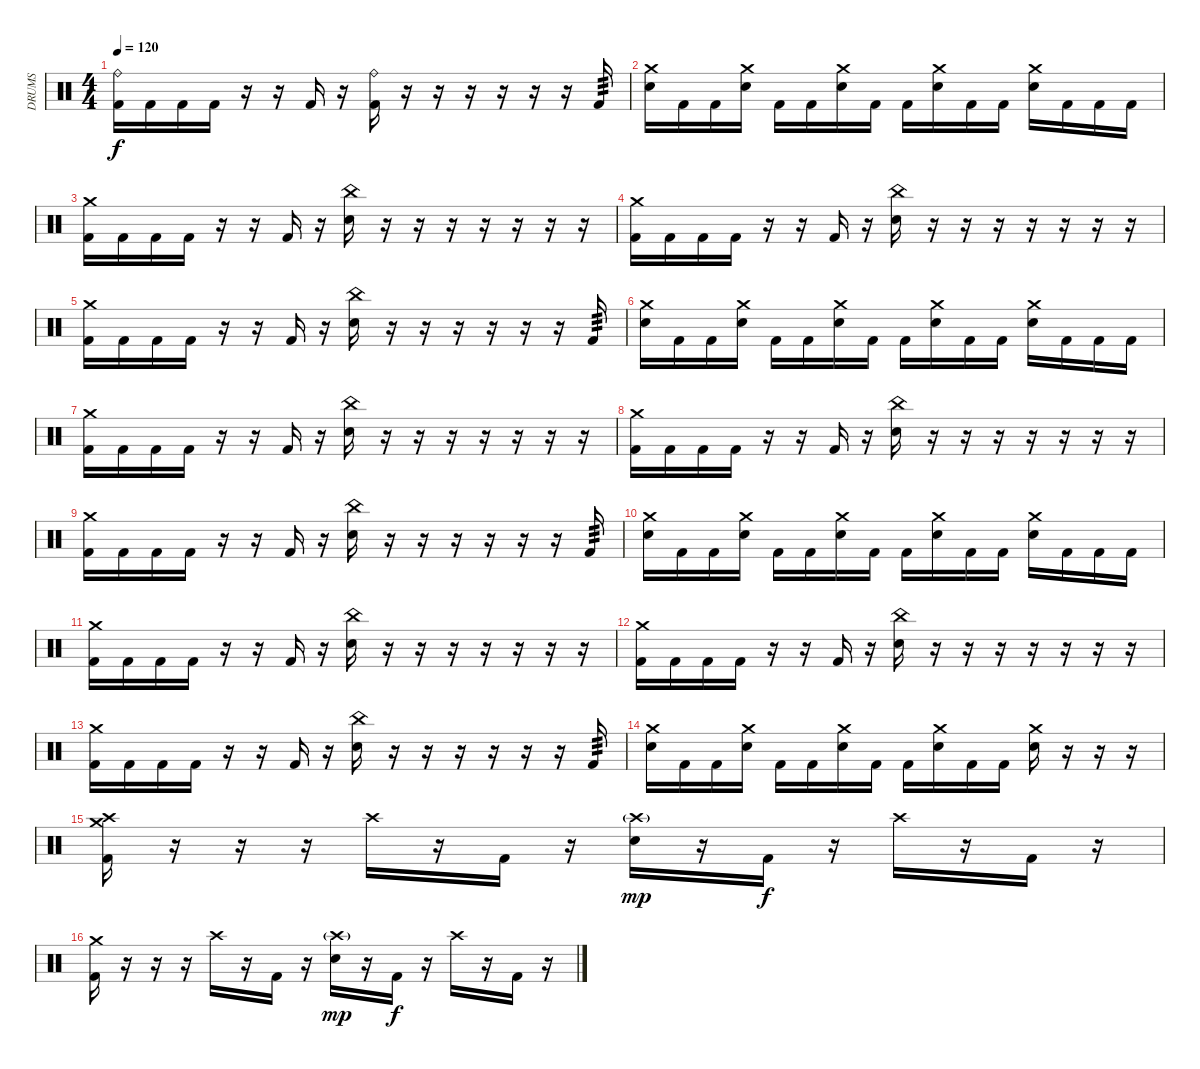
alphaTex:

\track ("DRUMS" "DRUMS") {instrument percussion}
\staff {score}
\articulation defaults
\ts (4 4)
\tempo 120
\clef neutral
\ks c
("Ride (bell)" "Kick (hit) 2").16{dy f} "Kick (hit) 2".16 "Kick (hit) 2".16 "Kick (hit) 2".16 r.16 r.16 "Kick (hit) 2".16 r.16 ("Ride (bell)" "Kick (hit) 2").16 r.16 r.16 r.16 r.16 r.16 r.16 "Kick (hit) 2".16{tp 3} |
("Electric Snare (hit)" "Crash medium (hit)").16 "Kick (hit) 2".16 "Kick (hit) 2".16 ("Electric Snare (hit)" "Crash medium (hit)").16 "Kick (hit) 2".16 "Kick (hit) 2".16 ("Electric Snare (hit)" "Crash medium (hit)").16 "Kick (hit) 2".16 "Kick (hit) 2".16 ("Electric Snare (hit)" "Crash medium (hit)").16 "Kick (hit) 2".16 "Kick (hit) 2".16 ("Electric Snare (hit)" "Crash medium (hit)").16 "Kick (hit) 2".16 "Kick (hit) 2".16 "Kick (hit) 2".16 |
("Crash medium (hit)" "Kick (hit) 2").16 "Kick (hit) 2".16 "Kick (hit) 2".16 "Kick (hit) 2".16 r.16 r.16 "Kick (hit) 2".16 r.16 ("China (hit)" "Electric Snare (hit)").16 r.16 r.16 r.16 r.16 r.16 r.16 r.16 |
("Crash medium (hit)" "Kick (hit) 2").16 "Kick (hit) 2".16 "Kick (hit) 2".16 "Kick (hit) 2".16 r.16 r.16 "Kick (hit) 2".16 r.16 ("China (hit)" "Electric Snare (hit)").16 r.16 r.16 r.16 r.16 r.16 r.16 r.16 |
("Crash medium (hit)" "Kick (hit) 2").16 "Kick (hit) 2".16 "Kick (hit) 2".16 "Kick (hit) 2".16 r.16 r.16 "Kick (hit) 2".16 r.16 ("China (hit)" "Electric Snare (hit)").16 r.16 r.16 r.16 r.16 r.16 r.16 "Kick (hit) 2".16{tp 3} |
("Electric Snare (hit)" "Crash medium (hit)").16 "Kick (hit) 2".16 "Kick (hit) 2".16 ("Electric Snare (hit)" "Crash medium (hit)").16 "Kick (hit) 2".16 "Kick (hit) 2".16 ("Electric Snare (hit)" "Crash medium (hit)").16 "Kick (hit) 2".16 "Kick (hit) 2".16 ("Electric Snare (hit)" "Crash medium (hit)").16 "Kick (hit) 2".16 "Kick (hit) 2".16 ("Electric Snare (hit)" "Crash medium (hit)").16 "Kick (hit) 2".16 "Kick (hit) 2".16 "Kick (hit) 2".16 |
("Crash medium (hit)" "Kick (hit) 2").16 "Kick (hit) 2".16 "Kick (hit) 2".16 "Kick (hit) 2".16 r.16 r.16 "Kick (hit) 2".16 r.16 ("China (hit)" "Electric Snare (hit)").16 r.16 r.16 r.16 r.16 r.16 r.16 r.16 |
("Crash medium (hit)" "Kick (hit) 2").16 "Kick (hit) 2".16 "Kick (hit) 2".16 "Kick (hit) 2".16 r.16 r.16 "Kick (hit) 2".16 r.16 ("China (hit)" "Electric Snare (hit)").16 r.16 r.16 r.16 r.16 r.16 r.16 r.16 |
("Crash medium (hit)" "Kick (hit) 2").16 "Kick (hit) 2".16 "Kick (hit) 2".16 "Kick (hit) 2".16 r.16 r.16 "Kick (hit) 2".16 r.16 ("China (hit)" "Electric Snare (hit)").16 r.16 r.16 r.16 r.16 r.16 r.16 "Kick (hit) 2".16{tp 3} |
("Electric Snare (hit)" "Crash medium (hit)").16 "Kick (hit) 2".16 "Kick (hit) 2".16 ("Electric Snare (hit)" "Crash medium (hit)").16 "Kick (hit) 2".16 "Kick (hit) 2".16 ("Electric Snare (hit)" "Crash medium (hit)").16 "Kick (hit) 2".16 "Kick (hit) 2".16 ("Electric Snare (hit)" "Crash medium (hit)").16 "Kick (hit) 2".16 "Kick (hit) 2".16 ("Electric Snare (hit)" "Crash medium (hit)").16 "Kick (hit) 2".16 "Kick (hit) 2".16 "Kick (hit) 2".16 |
("Crash medium (hit)" "Kick (hit) 2").16 "Kick (hit) 2".16 "Kick (hit) 2".16 "Kick (hit) 2".16 r.16 r.16 "Kick (hit) 2".16 r.16 ("China (hit)" "Electric Snare (hit)").16 r.16 r.16 r.16 r.16 r.16 r.16 r.16 |
("Crash medium (hit)" "Kick (hit) 2").16 "Kick (hit) 2".16 "Kick (hit) 2".16 "Kick (hit) 2".16 r.16 r.16 "Kick (hit) 2".16 r.16 ("China (hit)" "Electric Snare (hit)").16 r.16 r.16 r.16 r.16 r.16 r.16 r.16 |
("Crash medium (hit)" "Kick (hit) 2").16 "Kick (hit) 2".16 "Kick (hit) 2".16 "Kick (hit) 2".16 r.16 r.16 "Kick (hit) 2".16 r.16 ("China (hit)" "Electric Snare (hit)").16 r.16 r.16 r.16 r.16 r.16 r.16 "Kick (hit) 2".16{tp 3} |
("Electric Snare (hit)" "Crash medium (hit)").16 "Kick (hit) 2".16 "Kick (hit) 2".16 ("Electric Snare (hit)" "Crash medium (hit)").16 "Kick (hit) 2".16 "Kick (hit) 2".16 ("Electric Snare (hit)" "Crash medium (hit)").16 "Kick (hit) 2".16 "Kick (hit) 2".16 ("Electric Snare (hit)" "Crash medium (hit)").16 "Kick (hit) 2".16 "Kick (hit) 2".16 ("Electric Snare (hit)" "Crash medium (hit)").16 r.16 r.16 r.16 |
("Crash high (hit)" "Crash medium (hit)" "Kick (hit) 2").16 r.16 r.16 r.16 "Crash high (hit)".16 r.16 "Kick (hit) 2".16 r.16 ("Crash high (hit)"{g} "Electric Snare (hit)").16{dy mp} r.16 "Kick (hit) 2".16{dy f} r.16 "Crash high (hit)".16 r.16 "Kick (hit) 2".16 r.16 |
("Crash medium (hit)" "Kick (hit) 2").16 r.16 r.16 r.16 "Crash high (hit)".16 r.16 "Kick (hit) 2".16 r.16 ("Crash high (hit)"{g} "Electric Snare (hit)").16{dy mp} r.16 "Kick (hit) 2".16{dy f} r.16 "Crash high (hit)".16 r.16 "Kick (hit) 2".16 r.16
